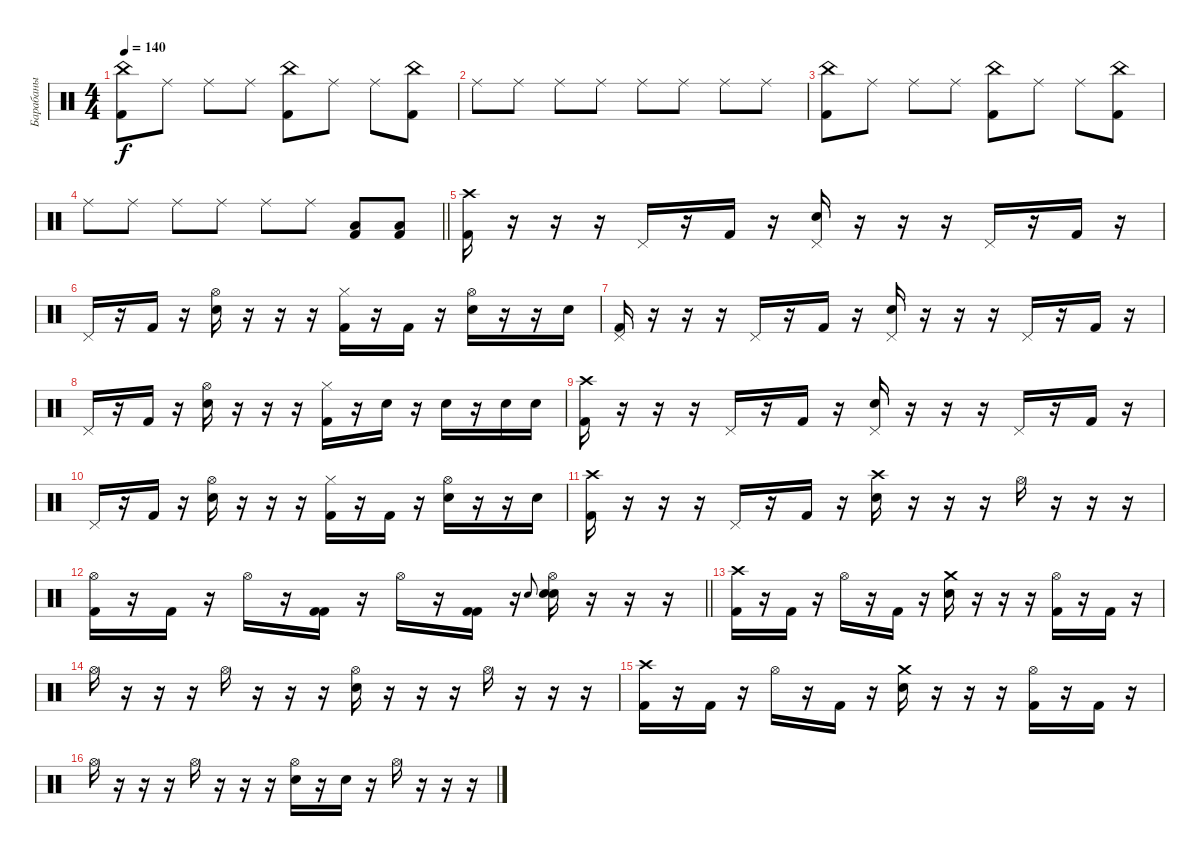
\track ("Барабаны" "Барабаны") {instrument percussion}
\staff {score}
\articulation defaults
\ts (4 4)
\section ("" " ")
\tempo 140
\clef neutral
\ks c
("China (hit)" "Kick (hit) 2").8{dy f} "Ride (middle)".8 "Ride (middle)".8 "Ride (middle)".8 ("China (hit)" "Kick (hit) 2").8 "Ride (middle)".8 "Ride (middle)".8 ("China (hit)" "Kick (hit) 2").8 |
"Ride (middle)".8 "Ride (middle)".8 "Ride (middle)".8 "Ride (middle)".8 "Ride (middle)".8 "Ride (middle)".8 "Ride (middle)".8 "Ride (middle)".8 |
("China (hit)" "Kick (hit) 2").8 "Ride (middle)".8 "Ride (middle)".8 "Ride (middle)".8 ("China (hit)" "Kick (hit) 2").8 "Ride (middle)".8 "Ride (middle)".8 ("China (hit)" "Kick (hit) 2").8 |
\barLineRight lightlight "Ride (middle)".8 "Ride (middle)".8 "Ride (middle)".8 "Ride (middle)".8 "Ride (middle)".8 "Ride (middle)".8
("Low Floor Tom (hit)" "Kick (hit) 2").8 ("Low Floor Tom (hit)" "Kick (hit) 2").8 |
\section ("" " ")
("Crash high (hit)" "Kick (hit) 2").16 r.16 r.16 r.16 "Pedal Hi-Hat (hit)".16 r.16 "Kick (hit) 2".16 r.16 ("Pedal Hi-Hat (hit)" "Electric Snare (hit)").16 r.16 r.16 r.16 "Pedal Hi-Hat (hit)".16 r.16 "Kick (hit) 2".16 r.16 |
"Pedal Hi-Hat (hit)".16 r.16 "Kick (hit) 2".16 r.16 ("Hi-Hat (open)" "Electric Snare (hit)").16 r.16 r.16 r.16 ("Hi-Hat (closed)" "Kick (hit) 2").16 r.16 "Kick (hit) 2".16 r.16 ("Hi-Hat (open)" "Electric Snare (hit)").16 r.16 r.16 "Electric Snare (hit)".16 |
("Pedal Hi-Hat (hit)" "Kick (hit) 2").16 r.16 r.16 r.16 "Pedal Hi-Hat (hit)".16 r.16 "Kick (hit) 2".16 r.16 ("Pedal Hi-Hat (hit)" "Electric Snare (hit)").16 r.16 r.16 r.16 "Pedal Hi-Hat (hit)".16 r.16 "Kick (hit) 2".16 r.16 |
"Pedal Hi-Hat (hit)".16 r.16 "Kick (hit) 2".16 r.16 ("Hi-Hat (open)" "Electric Snare (hit)").16 r.16 r.16 r.16 ("Hi-Hat (closed)" "Kick (hit) 2").16 r.16 "Electric Snare (hit)".16 r.16 "Electric Snare (hit)".16 r.16 "Electric Snare (hit)".16 "Electric Snare (hit)".16 |
("Crash high (hit)" "Kick (hit) 2").16 r.16 r.16 r.16 "Pedal Hi-Hat (hit)".16 r.16 "Kick (hit) 2".16 r.16 ("Pedal Hi-Hat (hit)" "Electric Snare (hit)").16 r.16 r.16 r.16 "Pedal Hi-Hat (hit)".16 r.16 "Kick (hit) 2".16 r.16 |
"Pedal Hi-Hat (hit)".16 r.16 "Kick (hit) 2".16 r.16 ("Hi-Hat (open)" "Electric Snare (hit)").16 r.16 r.16 r.16 ("Hi-Hat (closed)" "Kick (hit) 2").16 r.16 "Kick (hit) 2".16 r.16 ("Hi-Hat (open)" "Electric Snare (hit)").16 r.16 r.16 "Electric Snare (hit)".16 |
("Crash high (hit)" "Kick (hit) 2").16 r.16 r.16 r.16 "Pedal Hi-Hat (hit)".16 r.16 "Kick (hit) 2".16 r.16 ("Crash high (hit)" "Electric Snare (hit)").16 r.16 r.16 r.16 "Hi-Hat (open)".16 r.16 r.16 r.16 |
\barLineRight lightlight
("Hi-Hat (open)" "Kick (hit) 2").16 r.16 "Kick (hit) 2".16 r.16 "Hi-Hat (open)".16 r.16 ("Kick (hit) 2" "Kick (hit) 2").16 r.16 "Hi-Hat (open)".16 r.16 ("Kick (hit) 2" "Kick (hit) 2").16 r.16 "Electric Snare (hit)".8{gr onbeat} ("Hi-Hat (open)" "Electric Snare (hit)" "Electric Snare (hit)").16 r.16 r.16 r.16 |
\section ("" " ")
("Crash high (hit)" "Kick (hit) 2").16 r.16 "Kick (hit) 2".16 r.16 "Hi-Hat (open)".16 r.16 "Kick (hit) 2".16 r.16 ("Crash medium (hit)" "Electric Snare (hit)").16 r.16 r.16 r.16 ("Hi-Hat (open)" "Kick (hit) 2").16 r.16 "Kick (hit) 2".16 r.16 |
"Hi-Hat (open)".16 r.16 r.16 r.16 "Hi-Hat (open)".16 r.16 r.16 r.16 ("Hi-Hat (open)" "Electric Snare (hit)").16 r.16 r.16 r.16 "Hi-Hat (open)".16 r.16 r.16 r.16 |
("Crash high (hit)" "Kick (hit) 2").16 r.16 "Kick (hit) 2".16 r.16 "Hi-Hat (open)".16 r.16 "Kick (hit) 2".16 r.16 ("Crash medium (hit)" "Electric Snare (hit)").16 r.16 r.16 r.16 ("Hi-Hat (open)" "Kick (hit) 2").16 r.16 "Kick (hit) 2".16 r.16 |
"Hi-Hat (open)".16 r.16 r.16 r.16 "Hi-Hat (open)".16 r.16 r.16 r.16 ("Hi-Hat (open)" "Electric Snare (hit)").16 r.16 "Electric Snare (hit)".16 r.16 "Hi-Hat (open)".16 r.16 r.16 r.16
